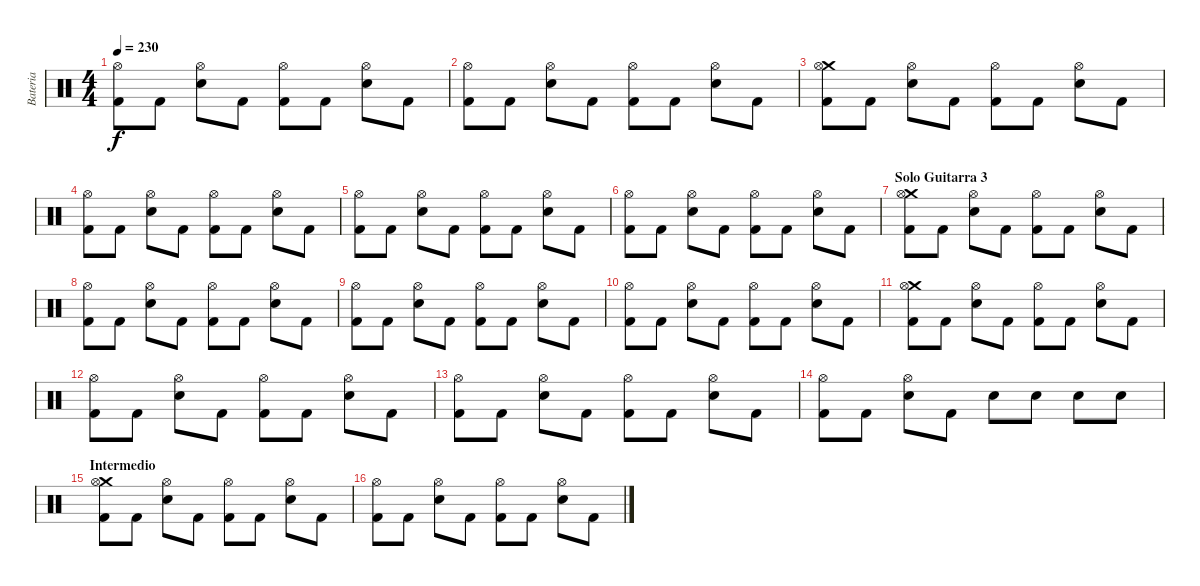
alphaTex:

\track ("Bateria" "Bateria") {instrument percussion}
\staff {score}
\articulation defaults
\ts (4 4)
\tempo 230
\clef neutral
\ks c
("Hi-Hat (open)" "Kick (hit) 2").8{dy f} "Kick (hit) 2".8 ("Hi-Hat (open)" "Snare (hit) 2").8 "Kick (hit) 2".8 ("Hi-Hat (open)" "Kick (hit) 2").8 "Kick (hit) 2".8 ("Hi-Hat (open)" "Snare (hit) 2").8 "Kick (hit) 2".8 |
("Hi-Hat (open)" "Kick (hit) 2").8 "Kick (hit) 2".8 ("Hi-Hat (open)" "Snare (hit) 2").8 "Kick (hit) 2".8 ("Hi-Hat (open)" "Kick (hit) 2").8 "Kick (hit) 2".8 ("Hi-Hat (open)" "Snare (hit) 2").8 "Kick (hit) 2".8 |
("Crash medium (hit)" "Hi-Hat (open)" "Kick (hit) 2").8 "Kick (hit) 2".8 ("Hi-Hat (open)" "Snare (hit) 2").8 "Kick (hit) 2".8 ("Hi-Hat (open)" "Kick (hit) 2").8 "Kick (hit) 2".8 ("Hi-Hat (open)" "Snare (hit) 2").8 "Kick (hit) 2".8 |
("Hi-Hat (open)" "Kick (hit) 2").8 "Kick (hit) 2".8 ("Hi-Hat (open)" "Snare (hit) 2").8 "Kick (hit) 2".8 ("Hi-Hat (open)" "Kick (hit) 2").8 "Kick (hit) 2".8 ("Hi-Hat (open)" "Snare (hit) 2").8 "Kick (hit) 2".8 |
("Hi-Hat (open)" "Kick (hit) 2").8 "Kick (hit) 2".8 ("Hi-Hat (open)" "Snare (hit) 2").8 "Kick (hit) 2".8 ("Hi-Hat (open)" "Kick (hit) 2").8 "Kick (hit) 2".8 ("Hi-Hat (open)" "Snare (hit) 2").8 "Kick (hit) 2".8 |
("Hi-Hat (open)" "Kick (hit) 2").8 "Kick (hit) 2".8 ("Hi-Hat (open)" "Snare (hit) 2").8 "Kick (hit) 2".8 ("Hi-Hat (open)" "Kick (hit) 2").8 "Kick (hit) 2".8 ("Hi-Hat (open)" "Snare (hit) 2").8 "Kick (hit) 2".8 |
\section ("" "Solo Guitarra 3")
("Crash medium (hit)" "Hi-Hat (open)" "Kick (hit) 2").8 "Kick (hit) 2".8 ("Hi-Hat (open)" "Snare (hit) 2").8 "Kick (hit) 2".8 ("Hi-Hat (open)" "Kick (hit) 2").8 "Kick (hit) 2".8 ("Hi-Hat (open)" "Snare (hit) 2").8 "Kick (hit) 2".8 |
("Hi-Hat (open)" "Kick (hit) 2").8 "Kick (hit) 2".8 ("Hi-Hat (open)" "Snare (hit) 2").8 "Kick (hit) 2".8 ("Hi-Hat (open)" "Kick (hit) 2").8 "Kick (hit) 2".8 ("Hi-Hat (open)" "Snare (hit) 2").8 "Kick (hit) 2".8 |
("Hi-Hat (open)" "Kick (hit) 2").8 "Kick (hit) 2".8 ("Hi-Hat (open)" "Snare (hit) 2").8 "Kick (hit) 2".8 ("Hi-Hat (open)" "Kick (hit) 2").8 "Kick (hit) 2".8 ("Hi-Hat (open)" "Snare (hit) 2").8 "Kick (hit) 2".8 |
("Hi-Hat (open)" "Kick (hit) 2").8 "Kick (hit) 2".8 ("Hi-Hat (open)" "Snare (hit) 2").8 "Kick (hit) 2".8 ("Hi-Hat (open)" "Kick (hit) 2").8 "Kick (hit) 2".8 ("Hi-Hat (open)" "Snare (hit) 2").8 "Kick (hit) 2".8 |
("Crash medium (hit)" "Hi-Hat (open)" "Kick (hit) 2").8 "Kick (hit) 2".8 ("Hi-Hat (open)" "Snare (hit) 2").8 "Kick (hit) 2".8 ("Hi-Hat (open)" "Kick (hit) 2").8 "Kick (hit) 2".8 ("Hi-Hat (open)" "Snare (hit) 2").8 "Kick (hit) 2".8 |
("Hi-Hat (open)" "Kick (hit) 2").8 "Kick (hit) 2".8 ("Hi-Hat (open)" "Snare (hit) 2").8 "Kick (hit) 2".8 ("Hi-Hat (open)" "Kick (hit) 2").8 "Kick (hit) 2".8 ("Hi-Hat (open)" "Snare (hit) 2").8 "Kick (hit) 2".8 |
("Hi-Hat (open)" "Kick (hit) 2").8 "Kick (hit) 2".8 ("Hi-Hat (open)" "Snare (hit) 2").8 "Kick (hit) 2".8 ("Hi-Hat (open)" "Kick (hit) 2").8 "Kick (hit) 2".8 ("Hi-Hat (open)" "Snare (hit) 2").8 "Kick (hit) 2".8 |
("Hi-Hat (open)" "Kick (hit) 2").8 "Kick (hit) 2".8 ("Hi-Hat (open)" "Snare (hit) 2").8 "Kick (hit) 2".8 "Snare (hit) 2".8 "Snare (hit) 2".8 "Snare (hit) 2".8 "Snare (hit) 2".8 |
\section ("" "Intermedio ")
("Crash medium (hit)" "Hi-Hat (open)" "Kick (hit) 2").8 "Kick (hit) 2".8 ("Hi-Hat (open)" "Snare (hit) 2").8 "Kick (hit) 2".8 ("Hi-Hat (open)" "Kick (hit) 2").8 "Kick (hit) 2".8 ("Hi-Hat (open)" "Snare (hit) 2").8 "Kick (hit) 2".8 |
("Hi-Hat (open)" "Kick (hit) 2").8 "Kick (hit) 2".8 ("Hi-Hat (open)" "Snare (hit) 2").8 "Kick (hit) 2".8 ("Hi-Hat (open)" "Kick (hit) 2").8 "Kick (hit) 2".8 ("Hi-Hat (open)" "Snare (hit) 2").8 "Kick (hit) 2".8
